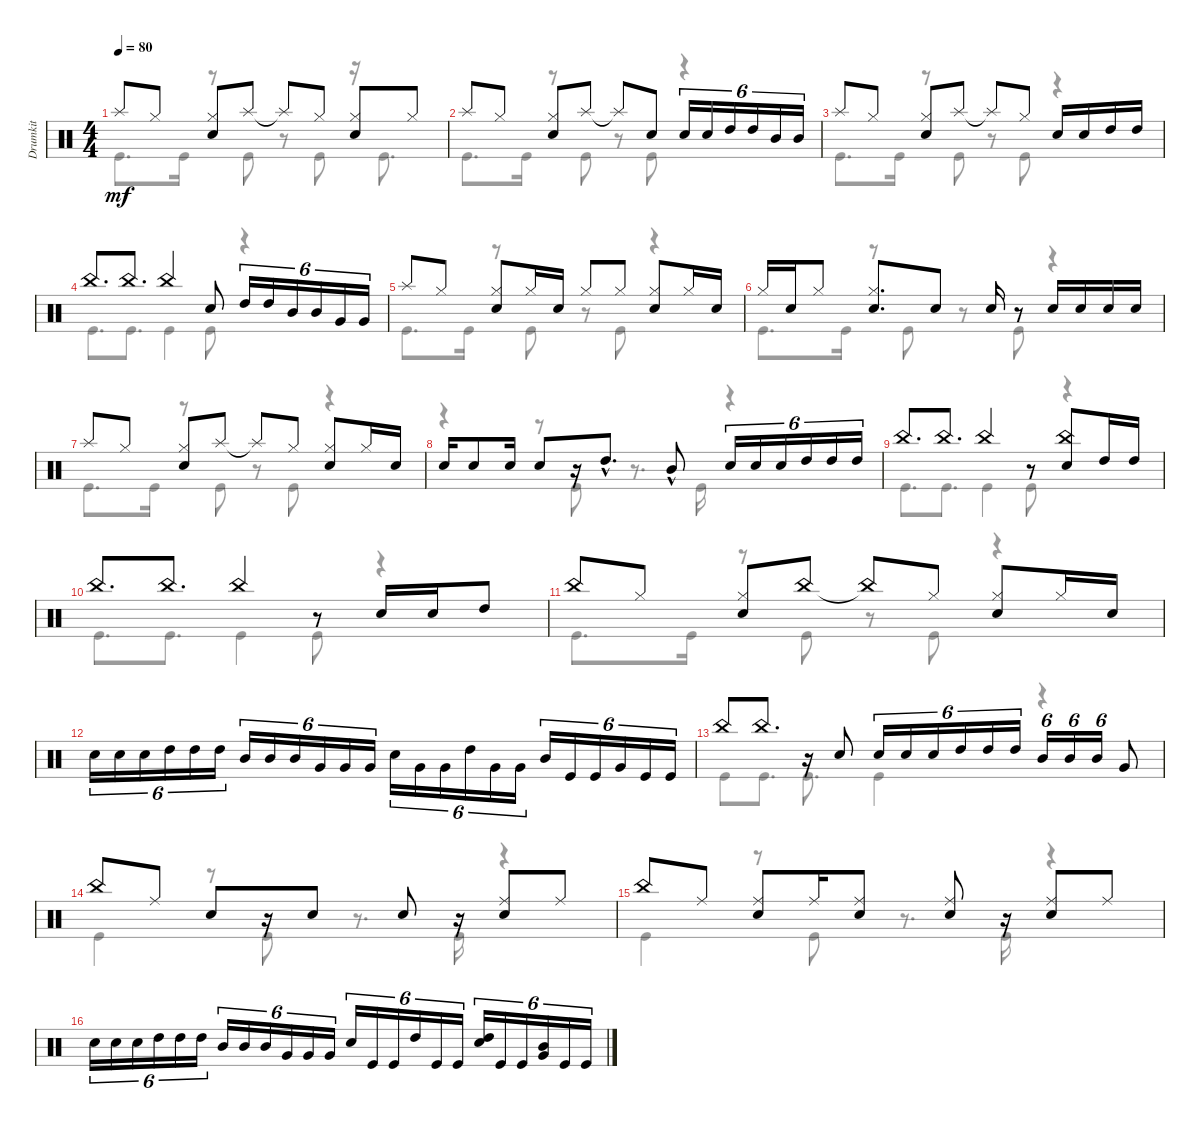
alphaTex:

\track ("Drumkit" "Drumkit") {instrument percussion}
\staff {score}
\articulation defaults
\voice
\ts (4 4)
\tempo 80
\clef neutral
\ks c "Splash (hit)".8{dy mf} "Hi-Hat (closed)".8
("Hi-Hat (closed)" "Snare (hit) 2").8 "Splash (hit)".8 "Splash (hit)"{t}.8 "Hi-Hat (closed)".8 ("Hi-Hat (closed)" "Snare (hit) 2").8 "Hi-Hat (closed)".8 |
"Splash (hit)".8 "Hi-Hat (closed)".8 ("Hi-Hat (closed)" "Snare (hit) 2").8 "Splash (hit)".8 "Splash (hit)"{t}.8 "Snare (hit) 2".8 "Snare (hit) 2".16{tu (6 4)} "Snare (hit) 2".16{tu (6 4)} "High Tom (hit)".16{tu (6 4)} "High Tom (hit)".16{tu (6 4)} "Mid Tom (hit)".16{tu (6 4)} "Mid Tom (hit)".16{tu (6 4)} |
"Splash (hit)".8 "Hi-Hat (closed)".8 ("Hi-Hat (closed)" "Snare (hit) 2").8 "Splash (hit)".8 "Splash (hit)"{t}.8 "Hi-Hat (closed)".8 "Snare (hit) 2".16 "Snare (hit) 2".16 "High Tom (hit)".16 "High Tom (hit)".16 |
"China (hit)".8{d} "China (hit)".8{d} "China (hit)".4 "Snare (hit) 2".8 "High Tom (hit)".16{tu (6 4)} "High Tom (hit)".16{tu (6 4)} "Mid Tom (hit)".16{tu (6 4)} "Mid Tom (hit)".16{tu (6 4)} "Very Low Tom (hit)".16{tu (6 4)} "Very Low Tom (hit)".16{tu (6 4)} |
"Splash (hit)".8 "Hi-Hat (closed)".8 ("Hi-Hat (closed)" "Snare (hit) 2").8 "Hi-Hat (closed)".16 "Snare (hit) 2".16 "Hi-Hat (closed)".8 "Hi-Hat (closed)".8 ("Hi-Hat (closed)" "Snare (hit) 2").8 "Hi-Hat (closed)".16 "Snare (hit) 2".16 |
"Hi-Hat (closed)".16 "Snare (hit) 2".16 "Hi-Hat (closed)".8 ("Hi-Hat (closed)" "Snare (hit) 2").8{d} "Snare (hit) 2".8 "Snare (hit) 2".16 r.8 "Snare (hit) 2".16 "Snare (hit) 2".16 "Snare (hit) 2".16 "Snare (hit) 2".16 |
"Splash (hit)".8 "Hi-Hat (closed)".8 ("Hi-Hat (closed)" "Snare (hit) 2").8 "Splash (hit)".8 "Splash (hit)"{t}.8 "Hi-Hat (closed)".8 ("Hi-Hat (closed)" "Snare (hit) 2").8 "Hi-Hat (closed)".16 "Snare (hit) 2".16 |
"Snare (hit) 2".16 "Snare (hit) 2".8 "Snare (hit) 2".16 "Snare (hit) 2".8 r.16 "High Tom (hit)"{hac}.8{d} "Mid Tom (hit)"{hac}.8 "Snare (hit) 2".16{tu (6 4)} "Snare (hit) 2".16{tu (6 4)} "Snare (hit) 2".16{tu (6 4)} "High Tom (hit)".16{tu (6 4)} "High Tom (hit)".16{tu (6 4)} "High Tom (hit)".16{tu (6 4)} |
"China (hit)".8{d} "China (hit)".8{d} "China (hit)".4 r.8 ("Snare (hit) 2" "China (hit)").8 "High Tom (hit)".16 "High Tom (hit)".16 |
"China (hit)".8{d} "China (hit)".8{d} "China (hit)".4 r.8 "Snare (hit) 2".16 "Snare (hit) 2".16 "High Tom (hit)".8 |
"China (hit)".8 "Hi-Hat (closed)".8 ("Hi-Hat (closed)" "Snare (hit) 2").8 "China (hit)".8 "China (hit)"{t}.8 "Hi-Hat (closed)".8 ("Hi-Hat (closed)" "Snare (hit) 2").8 "Hi-Hat (closed)".16 "Snare (hit) 2".16 |
"Snare (hit) 2".16{tu (6 4)} "Snare (hit) 2".16{tu (6 4)} "Snare (hit) 2".16{tu (6 4)} "High Tom (hit)".16{tu (6 4)} "High Tom (hit)".16{tu (6 4)} "High Tom (hit)".16{tu (6 4)} "Mid Tom (hit)".16{tu (6 4)} "Mid Tom (hit)".16{tu (6 4)} "Mid Tom (hit)".16{tu (6 4)} "Very Low Tom (hit)".16{tu (6 4)} "Very Low Tom (hit)".16{tu (6 4)} "Very Low Tom (hit)".16{tu (6 4)} "Snare (hit) 2".16{tu (6 4)} "Very Low Tom (hit)".16{tu (6 4)} "Very Low Tom (hit)".16{tu (6 4)} "High Tom (hit)".16{tu (6 4)} "Very Low Tom (hit)".16{tu (6 4)} "Very Low Tom (hit)".16{tu (6 4)} "Mid Tom (hit)".16{tu (6 4)} "Kick (hit)".16{tu (6 4)} "Kick (hit)".16{tu (6 4)} "Very Low Tom (hit)".16{tu (6 4)} "Kick (hit)".16{tu (6 4)} "Kick (hit)".16{tu (6 4)} |
"China (hit)".8 "China (hit)".8{d} r.16 "Snare (hit) 2".8 "Snare (hit) 2".16{tu (6 4)} "Snare (hit) 2".16{tu (6 4)} "Snare (hit) 2".16{tu (6 4)} "High Tom (hit)".16{tu (6 4)} "High Tom (hit)".16{tu (6 4)} "High Tom (hit)".16{tu (6 4)} "Mid Tom (hit)".16{tu (6 4)} "Mid Tom (hit)".16{tu (6 4)} "Mid Tom (hit)".16{tu (6 4)} "Very Low Tom (hit)".8 |
"China (hit)".8 "Ride (middle)".8 "Snare (hit) 2".8 r.16 "Snare (hit) 2".8 "Snare (hit) 2".8 r.16 ("Snare (hit) 2" "Ride (middle)").8 "Ride (middle)".8 |
"China (hit)".8 "Ride (middle)".8 ("Snare (hit) 2" "Ride (middle)").8 "Ride (middle)".16 ("Snare (hit) 2" "Ride (middle)").8 ("Snare (hit) 2" "Ride (middle)").8 r.16 ("Snare (hit) 2" "Ride (middle)").8 "Ride (middle)".8 |
"Snare (hit) 2".16{tu (6 4)} "Snare (hit) 2".16{tu (6 4)} "Snare (hit) 2".16{tu (6 4)} "High Tom (hit)".16{tu (6 4)} "High Tom (hit)".16{tu (6 4)} "High Tom (hit)".16{tu (6 4)} "Mid Tom (hit)".16{tu (6 4)} "Mid Tom (hit)".16{tu (6 4)} "Mid Tom (hit)".16{tu (6 4)} "Very Low Tom (hit)".16{tu (6 4)} "Very Low Tom (hit)".16{tu (6 4)} "Very Low Tom (hit)".16{tu (6 4)} "Snare (hit) 2".16{tu (6 4)} "Kick (hit)".16{tu (6 4)} "Kick (hit)".16{tu (6 4)} "High Tom (hit)".16{tu (6 4)} "Kick (hit)".16{tu (6 4)} "Kick (hit)".16{tu (6 4)} ("Snare (hit) 2" "High Tom (hit)").16{tu (6 4)} "Kick (hit)".16{tu (6 4)} "Kick (hit)".16{tu (6 4)} ("Mid Tom (hit)" "Very Low Tom (hit)").16{tu (6 4)} "Kick (hit)".16{tu (6 4)} "Kick (hit)".16{tu (6 4)}
\voice
\clef neutral
\ottava regular
\simile none
\ks c "Kick (hit)".8{d dy mf} "Kick (hit)".16
r.8 "Kick (hit)".8 r.8 "Kick (hit)".8 r.16 "Kick (hit)".8{d} |
"Kick (hit)".8{d} "Kick (hit)".16 r.8 "Kick (hit)".8 r.8 "Kick (hit)".8 r.4 |
"Kick (hit)".8{d} "Kick (hit)".16 r.8 "Kick (hit)".8 r.8 "Kick (hit)".8 r.4 |
"Kick (hit)".8{d} "Kick (hit)".8{d} "Kick (hit)".4 "Kick (hit)".8 r.4 |
"Kick (hit)".8{d} "Kick (hit)".16 r.8 "Kick (hit)".8 r.8 "Kick (hit)".8 r.4 |
"Kick (hit)".8{d} "Kick (hit)".16 r.8 "Kick (hit)".8 r.8 "Kick (hit)".8 r.4 |
"Kick (hit)".8{d} "Kick (hit)".16 r.8 "Kick (hit)".8 r.8 "Kick (hit)".8 r.4 |
r.4 r.8 "Kick (hit)".8 r.8{d} "Kick (hit)".16 r.4 |
"Kick (hit)".8{d} "Kick (hit)".8{d} "Kick (hit)".4 "Kick (hit)".8 r.4 |
"Kick (hit)".8{d} "Kick (hit)".8{d} "Kick (hit)".4 "Kick (hit)".8 r.4 |
"Kick (hit)".8{d} "Kick (hit)".16 r.8 "Kick (hit)".8 r.8 "Kick (hit)".8 r.4 |
|
"Kick (hit)".8 "Kick (hit)".8{d} "Kick (hit)".8{d} "Kick (hit)".4 r.4 |
"Kick (hit)".4 r.8 "Kick (hit)".8 r.8{d} "Kick (hit)".16 r.4 |
"Kick (hit)".4 r.8 "Kick (hit)".8 r.8{d} "Kick (hit)".16 r.4 |
